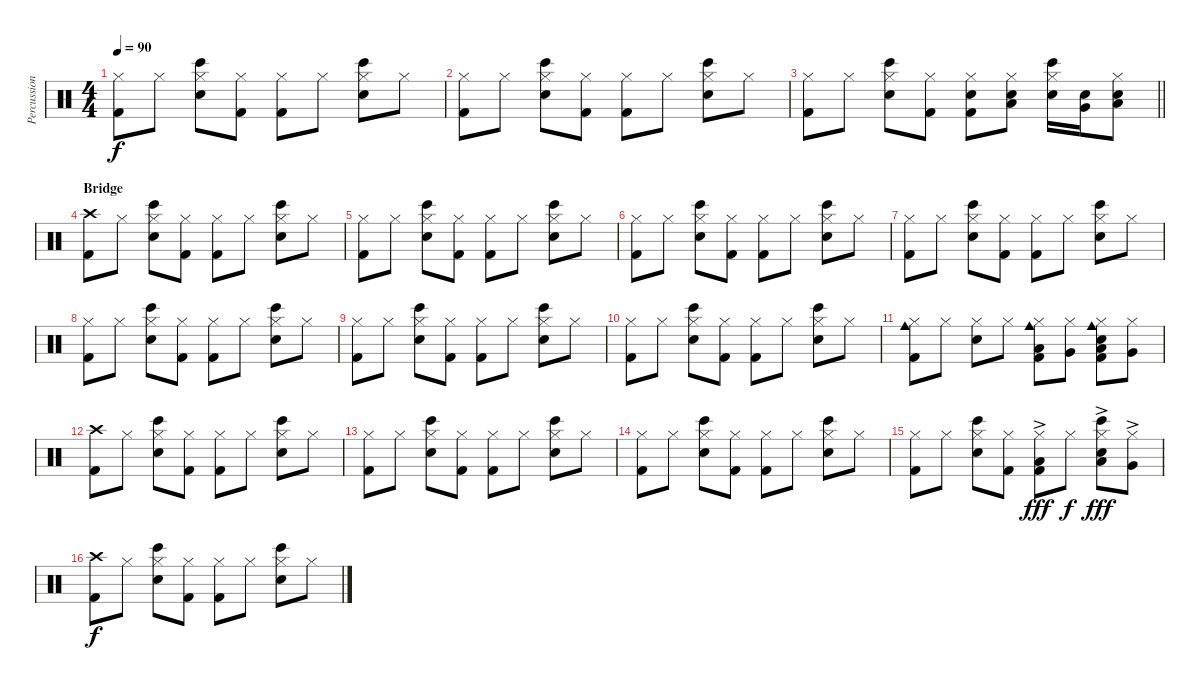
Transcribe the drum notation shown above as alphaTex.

\track ("Percussion" "Percussion") {instrument percussion}
\staff {score}
\articulation defaults
\ts (4 4)
\tempo 90
\clef neutral
\ks c
("Hi-Hat (closed)" "Kick (hit) 2").8{dy f} "Hi-Hat (closed)".8 ("Hi-Hat (closed)" "Bongo High (hit)" "Snare (hit) 2").8 ("Hi-Hat (closed)" "Kick (hit) 2").8 ("Hi-Hat (closed)" "Kick (hit) 2").8 "Hi-Hat (closed)".8 ("Hi-Hat (closed)" "Bongo High (hit)" "Snare (hit) 2").8 "Hi-Hat (closed)".8 |
("Hi-Hat (closed)" "Kick (hit) 2").8 "Hi-Hat (closed)".8 ("Hi-Hat (closed)" "Bongo High (hit)" "Snare (hit) 2").8 ("Hi-Hat (closed)" "Kick (hit) 2").8 ("Hi-Hat (closed)" "Kick (hit) 2").8 "Hi-Hat (closed)".8 ("Hi-Hat (closed)" "Bongo High (hit)" "Snare (hit) 2").8 "Hi-Hat (closed)".8 |
\barLineRight lightlight
("Hi-Hat (closed)" "Kick (hit) 2").8 "Hi-Hat (closed)".8 ("Hi-Hat (closed)" "Bongo High (hit)" "Snare (hit) 2").8 ("Hi-Hat (closed)" "Kick (hit) 2").8 ("Hi-Hat (closed)" "Electric Snare (hit)" "Kick (hit) 2").8 ("Hi-Hat (closed)" "Low Tom (hit)" "Electric Snare (hit)").8 ("Hi-Hat (closed)" "Bongo High (hit)" "Snare (hit) 2").16 ("Very Low Tom (hit)" "Electric Snare (hit)").16 ("Hi-Hat (closed)" "Low Tom (hit)" "Snare (hit) 2").8 |
\section ("" "Bridge")
("Crash high (hit)" "Kick (hit) 2").8 "Hi-Hat (closed)".8 ("Hi-Hat (closed)" "Bongo High (hit)" "Snare (hit) 2").8 ("Hi-Hat (closed)" "Kick (hit) 2").8 ("Hi-Hat (closed)" "Kick (hit) 2").8 "Hi-Hat (closed)".8 ("Hi-Hat (closed)" "Bongo High (hit)" "Snare (hit) 2").8 "Hi-Hat (closed)".8 |
("Hi-Hat (closed)" "Kick (hit) 2").8 "Hi-Hat (closed)".8 ("Hi-Hat (closed)" "Bongo High (hit)" "Snare (hit) 2").8 ("Hi-Hat (closed)" "Kick (hit) 2").8 ("Hi-Hat (closed)" "Kick (hit) 2").8 "Hi-Hat (closed)".8 ("Hi-Hat (closed)" "Bongo High (hit)" "Snare (hit) 2").8 "Hi-Hat (closed)".8 |
("Hi-Hat (closed)" "Kick (hit) 2").8 "Hi-Hat (closed)".8 ("Hi-Hat (closed)" "Bongo High (hit)" "Snare (hit) 2").8 ("Hi-Hat (closed)" "Kick (hit) 2").8 ("Hi-Hat (closed)" "Kick (hit) 2").8 "Hi-Hat (closed)".8 ("Hi-Hat (closed)" "Bongo High (hit)" "Snare (hit) 2").8 "Hi-Hat (closed)".8 |
("Hi-Hat (closed)" "Kick (hit) 2").8 "Hi-Hat (closed)".8 ("Hi-Hat (closed)" "Bongo High (hit)" "Snare (hit) 2").8 ("Hi-Hat (closed)" "Kick (hit) 2").8 ("Hi-Hat (closed)" "Kick (hit) 2").8 "Hi-Hat (closed)".8 ("Hi-Hat (closed)" "Bongo High (hit)" "Snare (hit) 2").8 "Hi-Hat (closed)".8 |
("Hi-Hat (closed)" "Kick (hit) 2").8 "Hi-Hat (closed)".8 ("Hi-Hat (closed)" "Bongo High (hit)" "Snare (hit) 2").8 ("Hi-Hat (closed)" "Kick (hit) 2").8 ("Hi-Hat (closed)" "Kick (hit) 2").8 "Hi-Hat (closed)".8 ("Hi-Hat (closed)" "Bongo High (hit)" "Snare (hit) 2").8 "Hi-Hat (closed)".8 |
("Hi-Hat (closed)" "Kick (hit) 2").8 "Hi-Hat (closed)".8 ("Hi-Hat (closed)" "Bongo High (hit)" "Snare (hit) 2").8 ("Hi-Hat (closed)" "Kick (hit) 2").8 ("Hi-Hat (closed)" "Kick (hit) 2").8 "Hi-Hat (closed)".8 ("Hi-Hat (closed)" "Bongo High (hit)" "Snare (hit) 2").8 "Hi-Hat (closed)".8 |
("Hi-Hat (closed)" "Kick (hit) 2").8 "Hi-Hat (closed)".8 ("Hi-Hat (closed)" "Bongo High (hit)" "Snare (hit) 2").8 ("Hi-Hat (closed)" "Kick (hit) 2").8 ("Hi-Hat (closed)" "Kick (hit) 2").8 "Hi-Hat (closed)".8 ("Hi-Hat (closed)" "Bongo High (hit)" "Snare (hit) 2").8 "Hi-Hat (closed)".8 |
("Hi-Hat (closed)" "Cowbell medium (hit)" "Kick (hit) 2").8 "Hi-Hat (closed)".8 ("Hi-Hat (closed)" "Snare (hit) 2").8 "Hi-Hat (closed)".8 ("Hi-Hat (closed)" "Cowbell medium (hit)" "Low Tom (hit)" "Kick (hit) 2").8 ("Hi-Hat (closed)" "Very Low Tom (hit)").8 ("Hi-Hat (closed)" "Cowbell medium (hit)" "Low Tom (hit)" "Snare (hit) 2" "Kick (hit) 2").8 ("Hi-Hat (closed)" "Very Low Tom (hit)").8 |
("Crash high (hit)" "Kick (hit) 2").8 "Hi-Hat (closed)".8 ("Hi-Hat (closed)" "Bongo High (hit)" "Snare (hit) 2").8 ("Hi-Hat (closed)" "Kick (hit) 2").8 ("Hi-Hat (closed)" "Kick (hit) 2").8 "Hi-Hat (closed)".8 ("Hi-Hat (closed)" "Bongo High (hit)" "Snare (hit) 2").8 "Hi-Hat (closed)".8 |
("Hi-Hat (closed)" "Kick (hit) 2").8 "Hi-Hat (closed)".8 ("Hi-Hat (closed)" "Bongo High (hit)" "Snare (hit) 2").8 ("Hi-Hat (closed)" "Kick (hit) 2").8 ("Hi-Hat (closed)" "Kick (hit) 2").8 "Hi-Hat (closed)".8 ("Hi-Hat (closed)" "Bongo High (hit)" "Snare (hit) 2").8 "Hi-Hat (closed)".8 |
("Hi-Hat (closed)" "Kick (hit) 2").8 "Hi-Hat (closed)".8 ("Hi-Hat (closed)" "Bongo High (hit)" "Snare (hit) 2").8 ("Hi-Hat (closed)" "Kick (hit) 2").8 ("Hi-Hat (closed)" "Kick (hit) 2").8 "Hi-Hat (closed)".8 ("Hi-Hat (closed)" "Bongo High (hit)" "Snare (hit) 2").8 "Hi-Hat (closed)".8 |
("Hi-Hat (closed)" "Kick (hit) 2").8 "Hi-Hat (closed)".8 ("Hi-Hat (closed)" "Bongo High (hit)" "Snare (hit) 2").8 ("Hi-Hat (closed)" "Kick (hit) 2").8 ("Hi-Hat (closed)" "Low Tom (hit)"{ac} "Kick (hit) 2").8{dy fff} "Hi-Hat (closed)".8{dy f} ("Hi-Hat (closed)" "Bongo High (hit)" "Low Tom (hit)"{ac} "Snare (hit) 2").8{dy fff} ("Hi-Hat (closed)" "Very Low Tom (hit)"{ac}).8 |
("Crash high (hit)" "Kick (hit) 2").8{dy f} "Hi-Hat (closed)".8 ("Hi-Hat (closed)" "Bongo High (hit)" "Snare (hit) 2").8 ("Hi-Hat (closed)" "Kick (hit) 2").8 ("Hi-Hat (closed)" "Kick (hit) 2").8 "Hi-Hat (closed)".8 ("Hi-Hat (closed)" "Bongo High (hit)" "Snare (hit) 2").8 "Hi-Hat (closed)".8
